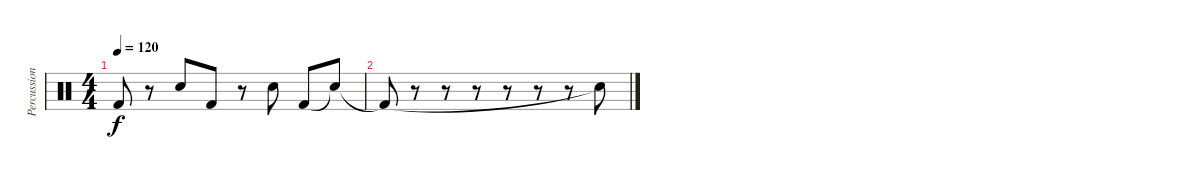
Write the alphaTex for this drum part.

\track ("Percussion" "Percussion") {instrument percussion}
\staff {score}
\articulation defaults
\ts (4 4)
\tempo 120
\clef neutral
\ks c "Kick (hit) 2".8{dy f}
r.8 "Snare (hit) 2".8 "Kick (hit) 2".8 r.8 "Snare (hit) 2".8 "Kick (hit) 2".8 "Snare (hit)"{t}.8 |
"Kick (hit) 2"{t}.8 r.8 r.8 r.8 r.8 r.8 r.8 "Snare (hit)"{t}.8
